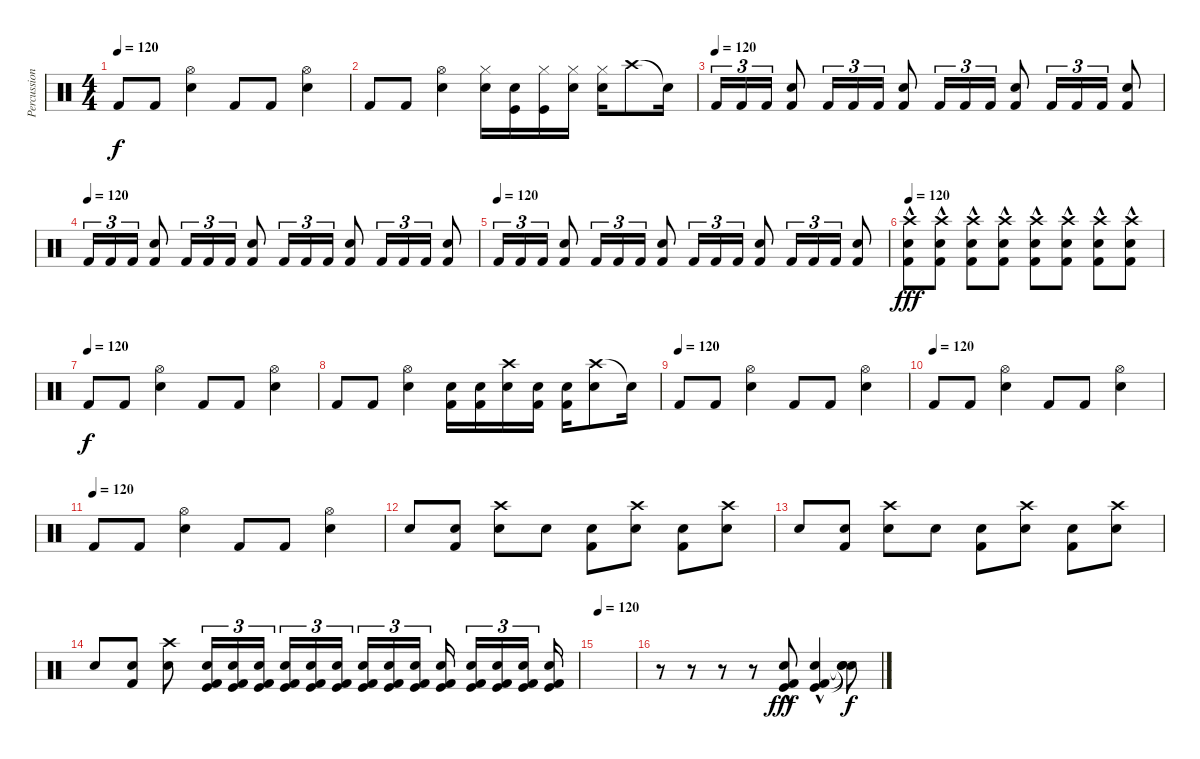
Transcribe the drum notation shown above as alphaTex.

\track ("Percussion" "Percussion") {instrument percussion}
\staff {score}
\articulation defaults
\ts (4 4)
\tempo 120
\clef neutral
\ks c "Kick (hit) 2".8{dy f} "Kick (hit) 2".8
("Hi-Hat (open)" "Electric Snare (hit)").4 "Kick (hit) 2".8 "Kick (hit) 2".8 ("Hi-Hat (open)" "Electric Snare (hit)").4 |
"Kick (hit) 2".8 "Kick (hit) 2".8 ("Hi-Hat (open)" "Electric Snare (hit)").4 ("Electric Snare (hit)" "Hi-Hat (closed)").16 ("Electric Snare (hit)" "Kick (hit)").16 ("Hi-Hat (closed)" "Kick (hit)").16 ("Electric Snare (hit)" "Hi-Hat (closed)").16 ("Hi-Hat (closed)" "Electric Snare (hit)").16 "Crash high (hit)".8 "Snare (hit)"{t}.16 |
\tempo 250
\tempo (120)
"Kick (hit) 2".16{tu (3 2)} "Kick (hit) 2".16{tu (3 2)} "Kick (hit) 2".16{tu (3 2)} ("Electric Snare (hit)" "Kick (hit) 2").8 "Kick (hit) 2".16{tu (3 2)} "Kick (hit) 2".16{tu (3 2)} "Kick (hit) 2".16{tu (3 2)} ("Electric Snare (hit)" "Kick (hit) 2").8 "Kick (hit) 2".16{tu (3 2)} "Kick (hit) 2".16{tu (3 2)} "Kick (hit) 2".16{tu (3 2)} ("Electric Snare (hit)" "Kick (hit) 2").8 "Kick (hit) 2".16{tu (3 2)} "Kick (hit) 2".16{tu (3 2)} "Kick (hit) 2".16{tu (3 2)} ("Electric Snare (hit)" "Kick (hit) 2").8 |
\tempo (120)
"Kick (hit) 2".16{tu (3 2)} "Kick (hit) 2".16{tu (3 2)} "Kick (hit) 2".16{tu (3 2)} ("Electric Snare (hit)" "Kick (hit) 2").8 "Kick (hit) 2".16{tu (3 2)} "Kick (hit) 2".16{tu (3 2)} "Kick (hit) 2".16{tu (3 2)} ("Electric Snare (hit)" "Kick (hit) 2").8 "Kick (hit) 2".16{tu (3 2)} "Kick (hit) 2".16{tu (3 2)} "Kick (hit) 2".16{tu (3 2)} ("Electric Snare (hit)" "Kick (hit) 2").8 "Kick (hit) 2".16{tu (3 2)} "Kick (hit) 2".16{tu (3 2)} "Kick (hit) 2".16{tu (3 2)} ("Electric Snare (hit)" "Kick (hit) 2").8 |
\tempo (120)
"Kick (hit) 2".16{tu (3 2)} "Kick (hit) 2".16{tu (3 2)} "Kick (hit) 2".16{tu (3 2)} ("Electric Snare (hit)" "Kick (hit) 2").8 "Kick (hit) 2".16{tu (3 2)} "Kick (hit) 2".16{tu (3 2)} "Kick (hit) 2".16{tu (3 2)} ("Electric Snare (hit)" "Kick (hit) 2").8 "Kick (hit) 2".16{tu (3 2)} "Kick (hit) 2".16{tu (3 2)} "Kick (hit) 2".16{tu (3 2)} ("Electric Snare (hit)" "Kick (hit) 2").8 "Kick (hit) 2".16{tu (3 2)} "Kick (hit) 2".16{tu (3 2)} "Kick (hit) 2".16{tu (3 2)} ("Electric Snare (hit)" "Kick (hit) 2").8 |
\tempo 120
("Crash high (hit)"{hac} "Electric Snare (hit)"{hac} "Kick (hit) 2"{hac}).8{dy fff} ("Crash high (hit)"{hac} "Electric Snare (hit)"{hac} "Kick (hit) 2"{hac}).8 ("Crash high (hit)"{hac} "Electric Snare (hit)"{hac} "Kick (hit) 2"{hac}).8 ("Crash high (hit)"{hac} "Electric Snare (hit)"{hac} "Kick (hit) 2"{hac}).8 ("Crash high (hit)"{hac} "Electric Snare (hit)"{hac} "Kick (hit) 2"{hac}).8 ("Crash high (hit)"{hac} "Electric Snare (hit)"{hac} "Kick (hit) 2"{hac}).8 ("Crash high (hit)"{hac} "Electric Snare (hit)"{hac} "Kick (hit) 2"{hac}).8 ("Crash high (hit)"{hac} "Electric Snare (hit)"{hac} "Kick (hit) 2"{hac}).8 |
\tempo (120)
"Kick (hit) 2".8{dy f} "Kick (hit) 2".8 ("Hi-Hat (open)" "Electric Snare (hit)").4 "Kick (hit) 2".8 "Kick (hit) 2".8 ("Hi-Hat (open)" "Electric Snare (hit)").4 |
"Kick (hit) 2".8 "Kick (hit) 2".8 ("Hi-Hat (open)" "Electric Snare (hit)").4 ("Electric Snare (hit)" "Kick (hit) 2").16 ("Electric Snare (hit)" "Kick (hit) 2").16 ("Crash high (hit)" "Electric Snare (hit)").16 ("Electric Snare (hit)" "Kick (hit) 2").16 ("Electric Snare (hit)" "Kick (hit) 2").16 ("Crash high (hit)" "Electric Snare (hit)").8 "Snare (hit)"{t}.16 |
\tempo 100
\tempo (120)
"Kick (hit) 2".8 "Kick (hit) 2".8 ("Hi-Hat (open)" "Electric Snare (hit)").4 "Kick (hit) 2".8 "Kick (hit) 2".8 ("Hi-Hat (open)" "Electric Snare (hit)").4 |
\tempo (120)
"Kick (hit) 2".8 "Kick (hit) 2".8 ("Hi-Hat (open)" "Electric Snare (hit)").4 "Kick (hit) 2".8 "Kick (hit) 2".8 ("Hi-Hat (open)" "Electric Snare (hit)").4 |
\tempo (120)
"Kick (hit) 2".8 "Kick (hit) 2".8 ("Hi-Hat (open)" "Electric Snare (hit)").4 "Kick (hit) 2".8 "Kick (hit) 2".8 ("Hi-Hat (open)" "Electric Snare (hit)").4 |
"Electric Snare (hit)".8 ("Electric Snare (hit)" "Kick (hit) 2").8 ("Crash high (hit)" "Electric Snare (hit)").8 "Electric Snare (hit)".8 ("Electric Snare (hit)" "Kick (hit) 2").8 ("Crash high (hit)" "Electric Snare (hit)").8 ("Electric Snare (hit)" "Kick (hit) 2").8 ("Crash high (hit)" "Electric Snare (hit)").8 |
"Electric Snare (hit)".8 ("Electric Snare (hit)" "Kick (hit) 2").8 ("Crash high (hit)" "Electric Snare (hit)").8 "Electric Snare (hit)".8 ("Electric Snare (hit)" "Kick (hit) 2").8 ("Crash high (hit)" "Electric Snare (hit)").8 ("Electric Snare (hit)" "Kick (hit) 2").8 ("Crash high (hit)" "Electric Snare (hit)").8 |
"Electric Snare (hit)".8 ("Electric Snare (hit)" "Kick (hit) 2").8 ("Crash high (hit)" "Electric Snare (hit)").8 ("Kick (hit)" "Electric Snare (hit)" "Kick (hit) 2").16{tu (3 2)} ("Kick (hit)" "Electric Snare (hit)" "Kick (hit) 2").16{tu (3 2)} ("Kick (hit)" "Electric Snare (hit)" "Kick (hit) 2").16{tu (3 2)} ("Kick (hit)" "Electric Snare (hit)" "Kick (hit) 2").16{tu (3 2)} ("Kick (hit)" "Electric Snare (hit)" "Kick (hit) 2").16{tu (3 2)} ("Kick (hit)" "Electric Snare (hit)" "Kick (hit) 2").16{tu (3 2) beam splitsecondary} ("Kick (hit)" "Electric Snare (hit)" "Kick (hit) 2").16{tu (3 2)} ("Kick (hit)" "Electric Snare (hit)" "Kick (hit) 2").16{tu (3 2)} ("Kick (hit)" "Electric Snare (hit)" "Kick (hit) 2").16{tu (3 2)} ("Kick (hit)" "Electric Snare (hit)" "Kick (hit) 2").16{beam splitsecondary} ("Kick (hit)" "Electric Snare (hit)" "Kick (hit) 2").16{tu (3 2)} ("Kick (hit)" "Electric Snare (hit)" "Kick (hit) 2").16{tu (3 2)} ("Kick (hit)" "Electric Snare (hit)" "Kick (hit) 2").16{tu (3 2) beam splitsecondary} ("Kick (hit)" "Electric Snare (hit)" "Kick (hit) 2").16 |
\tempo 120
|
r.8 r.8 r.8 r.8 ("Electric Snare (hit)"{hac} "Kick (hit) 2"{hac} "Kick (hit)"{hac}).8{dy fff} ("Electric Snare (hit)"{hac} "Kick (hit) 2"{hac} "Kick (hit)"{hac}).4 ("Snare (hit)"{t} "Snare (hit)"{t} "Snare (hit)"{t}).8{dy f}
